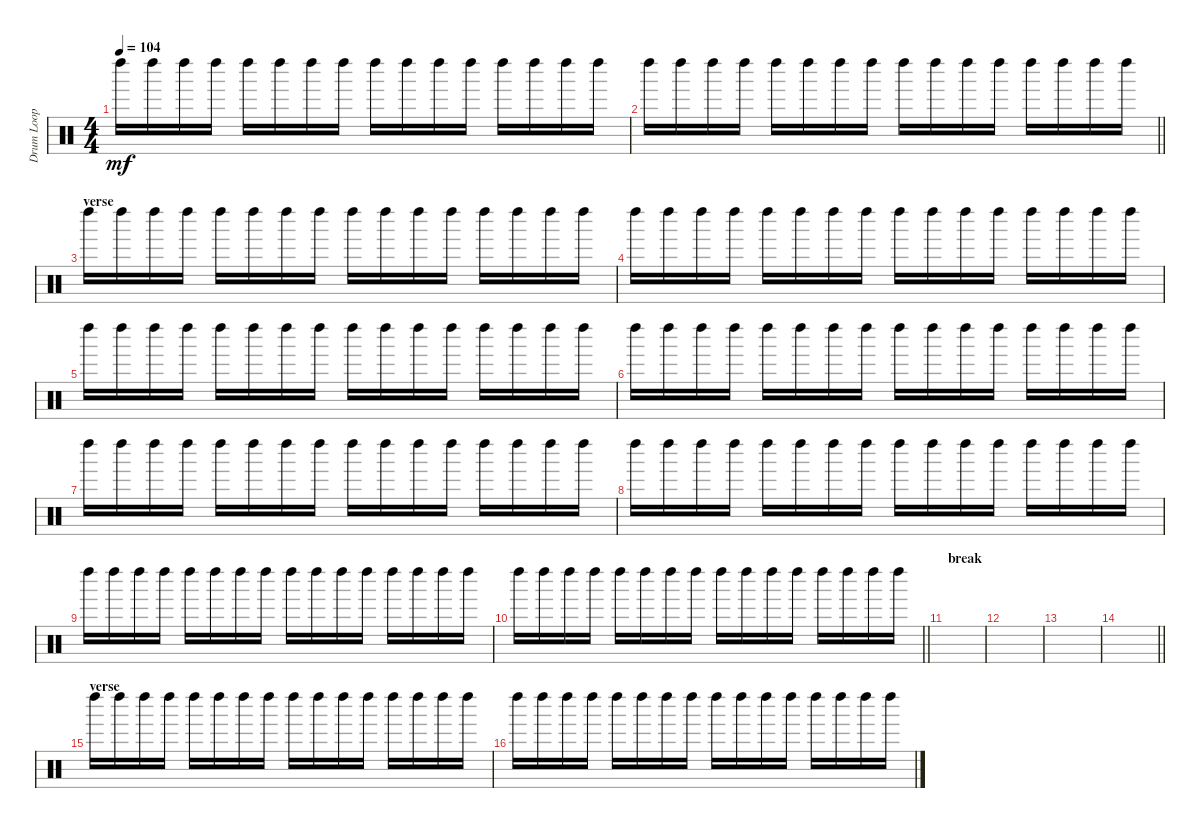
\track ("Drum Loop" "Drum Loop") {instrument percussion}
\staff {score}
\articulation defaults
\ts (4 4)
\tempo 104
\clef neutral
\ks c "Left Maraca (hit)".16{dy mf} "Left Maraca (hit)".16 "Left Maraca (hit)".16 "Left Maraca (hit)".16 "Left Maraca (hit)".16 "Left Maraca (hit)".16 "Left Maraca (hit)".16 "Left Maraca (hit)".16 "Left Maraca (hit)".16 "Left Maraca (hit)".16 "Left Maraca (hit)".16 "Left Maraca (hit)".16 "Left Maraca (hit)".16 "Left Maraca (hit)".16 "Left Maraca (hit)".16 "Left Maraca (hit)".16
|
\barLineRight lightlight "Left Maraca (hit)".16 "Left Maraca (hit)".16 "Left Maraca (hit)".16 "Left Maraca (hit)".16 "Left Maraca (hit)".16 "Left Maraca (hit)".16 "Left Maraca (hit)".16 "Left Maraca (hit)".16 "Left Maraca (hit)".16 "Left Maraca (hit)".16 "Left Maraca (hit)".16 "Left Maraca (hit)".16 "Left Maraca (hit)".16 "Left Maraca (hit)".16 "Left Maraca (hit)".16 "Left Maraca (hit)".16
|
\section ("" "verse")
"Left Maraca (hit)".16{volume 13} "Left Maraca (hit)".16 "Left Maraca (hit)".16 "Left Maraca (hit)".16 "Left Maraca (hit)".16 "Left Maraca (hit)".16 "Left Maraca (hit)".16 "Left Maraca (hit)".16 "Left Maraca (hit)".16 "Left Maraca (hit)".16 "Left Maraca (hit)".16 "Left Maraca (hit)".16 "Left Maraca (hit)".16 "Left Maraca (hit)".16 "Left Maraca (hit)".16 "Left Maraca (hit)".16 |
"Left Maraca (hit)".16 "Left Maraca (hit)".16 "Left Maraca (hit)".16 "Left Maraca (hit)".16 "Left Maraca (hit)".16 "Left Maraca (hit)".16 "Left Maraca (hit)".16 "Left Maraca (hit)".16 "Left Maraca (hit)".16 "Left Maraca (hit)".16 "Left Maraca (hit)".16 "Left Maraca (hit)".16 "Left Maraca (hit)".16 "Left Maraca (hit)".16 "Left Maraca (hit)".16 "Left Maraca (hit)".16 |
"Left Maraca (hit)".16 "Left Maraca (hit)".16 "Left Maraca (hit)".16 "Left Maraca (hit)".16 "Left Maraca (hit)".16 "Left Maraca (hit)".16 "Left Maraca (hit)".16 "Left Maraca (hit)".16 "Left Maraca (hit)".16 "Left Maraca (hit)".16 "Left Maraca (hit)".16 "Left Maraca (hit)".16 "Left Maraca (hit)".16 "Left Maraca (hit)".16 "Left Maraca (hit)".16 "Left Maraca (hit)".16 |
"Left Maraca (hit)".16 "Left Maraca (hit)".16 "Left Maraca (hit)".16 "Left Maraca (hit)".16 "Left Maraca (hit)".16 "Left Maraca (hit)".16 "Left Maraca (hit)".16 "Left Maraca (hit)".16 "Left Maraca (hit)".16 "Left Maraca (hit)".16 "Left Maraca (hit)".16 "Left Maraca (hit)".16 "Left Maraca (hit)".16 "Left Maraca (hit)".16 "Left Maraca (hit)".16 "Left Maraca (hit)".16 |
"Left Maraca (hit)".16 "Left Maraca (hit)".16 "Left Maraca (hit)".16 "Left Maraca (hit)".16 "Left Maraca (hit)".16 "Left Maraca (hit)".16 "Left Maraca (hit)".16 "Left Maraca (hit)".16 "Left Maraca (hit)".16 "Left Maraca (hit)".16 "Left Maraca (hit)".16 "Left Maraca (hit)".16 "Left Maraca (hit)".16 "Left Maraca (hit)".16 "Left Maraca (hit)".16 "Left Maraca (hit)".16 |
"Left Maraca (hit)".16 "Left Maraca (hit)".16 "Left Maraca (hit)".16 "Left Maraca (hit)".16 "Left Maraca (hit)".16 "Left Maraca (hit)".16 "Left Maraca (hit)".16 "Left Maraca (hit)".16 "Left Maraca (hit)".16 "Left Maraca (hit)".16 "Left Maraca (hit)".16 "Left Maraca (hit)".16 "Left Maraca (hit)".16 "Left Maraca (hit)".16 "Left Maraca (hit)".16 "Left Maraca (hit)".16 |
"Left Maraca (hit)".16 "Left Maraca (hit)".16 "Left Maraca (hit)".16 "Left Maraca (hit)".16 "Left Maraca (hit)".16 "Left Maraca (hit)".16 "Left Maraca (hit)".16 "Left Maraca (hit)".16 "Left Maraca (hit)".16 "Left Maraca (hit)".16 "Left Maraca (hit)".16 "Left Maraca (hit)".16 "Left Maraca (hit)".16 "Left Maraca (hit)".16 "Left Maraca (hit)".16 "Left Maraca (hit)".16 |
\barLineRight lightlight "Left Maraca (hit)".16 "Left Maraca (hit)".16 "Left Maraca (hit)".16 "Left Maraca (hit)".16 "Left Maraca (hit)".16 "Left Maraca (hit)".16 "Left Maraca (hit)".16 "Left Maraca (hit)".16 "Left Maraca (hit)".16 "Left Maraca (hit)".16 "Left Maraca (hit)".16 "Left Maraca (hit)".16 "Left Maraca (hit)".16 "Left Maraca (hit)".16 "Left Maraca (hit)".16 "Left Maraca (hit)".16
|
\section ("" "break")
|
|
|
\barLineRight lightlight
|
\section ("" "verse")
"Left Maraca (hit)".16{volume 13} "Left Maraca (hit)".16 "Left Maraca (hit)".16 "Left Maraca (hit)".16 "Left Maraca (hit)".16 "Left Maraca (hit)".16 "Left Maraca (hit)".16 "Left Maraca (hit)".16 "Left Maraca (hit)".16 "Left Maraca (hit)".16 "Left Maraca (hit)".16 "Left Maraca (hit)".16 "Left Maraca (hit)".16 "Left Maraca (hit)".16 "Left Maraca (hit)".16 "Left Maraca (hit)".16 |
"Left Maraca (hit)".16 "Left Maraca (hit)".16 "Left Maraca (hit)".16 "Left Maraca (hit)".16 "Left Maraca (hit)".16 "Left Maraca (hit)".16 "Left Maraca (hit)".16 "Left Maraca (hit)".16 "Left Maraca (hit)".16 "Left Maraca (hit)".16 "Left Maraca (hit)".16 "Left Maraca (hit)".16 "Left Maraca (hit)".16 "Left Maraca (hit)".16 "Left Maraca (hit)".16 "Left Maraca (hit)".16
